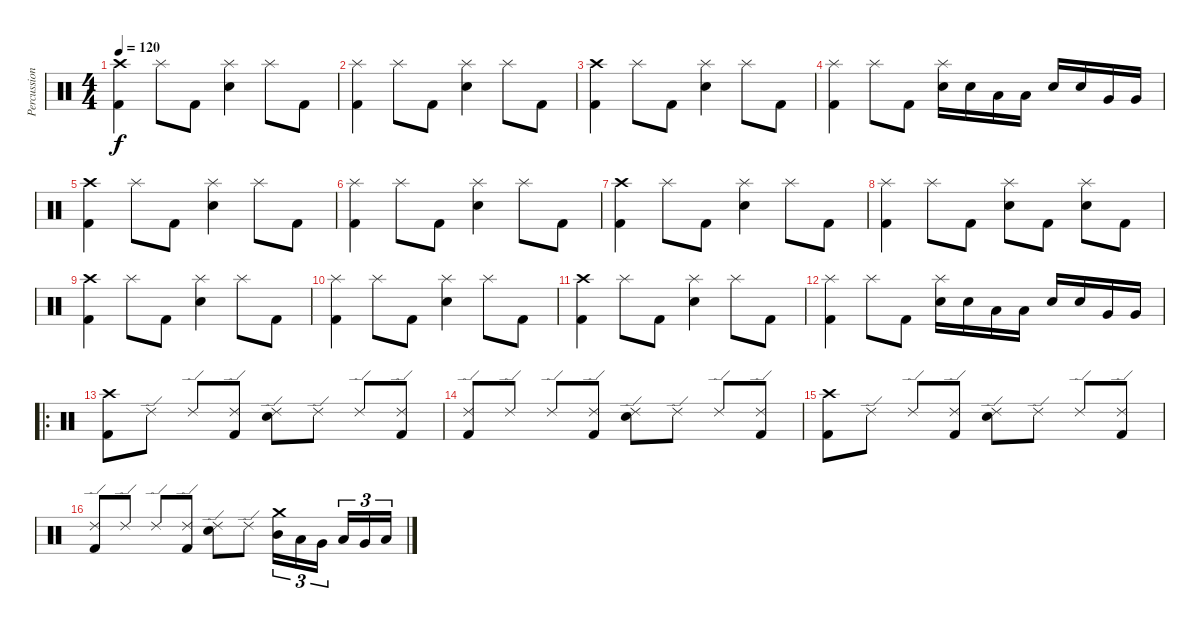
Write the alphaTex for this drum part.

\track ("Percussion" "Percussion") {instrument percussion}
\staff {score}
\articulation defaults
\ts (4 4)
\tempo 120
\clef neutral
\ks c
("Crash high (hit)" "Kick (hit) 2").4{dy f} "Splash (hit)".8 "Kick (hit) 2".8 ("Splash (hit)" "Electric Snare (hit)").4 "Splash (hit)".8 "Kick (hit) 2".8 |
("Splash (hit)" "Kick (hit) 2").4 "Splash (hit)".8 "Kick (hit) 2".8 ("Splash (hit)" "Electric Snare (hit)").4 "Splash (hit)".8 "Kick (hit) 2".8 |
("Crash high (hit)" "Kick (hit) 2").4 "Splash (hit)".8 "Kick (hit) 2".8 ("Splash (hit)" "Electric Snare (hit)").4 "Splash (hit)".8 "Kick (hit) 2".8 |
("Splash (hit)" "Kick (hit) 2").4 "Splash (hit)".8 "Kick (hit) 2".8 ("Splash (hit)" "Electric Snare (hit)").16 "Electric Snare (hit)".16 "Low Tom (hit)".16 "Low Tom (hit)".16 "Electric Snare (hit)".16 "Electric Snare (hit)".16 "Very Low Tom (hit)".16 "Very Low Tom (hit)".16 |
("Crash high (hit)" "Kick (hit) 2").4 "Splash (hit)".8 "Kick (hit) 2".8 ("Splash (hit)" "Electric Snare (hit)").4 "Splash (hit)".8 "Kick (hit) 2".8 |
("Splash (hit)" "Kick (hit) 2").4 "Splash (hit)".8 "Kick (hit) 2".8 ("Splash (hit)" "Electric Snare (hit)").4 "Splash (hit)".8 "Kick (hit) 2".8 |
("Crash high (hit)" "Kick (hit) 2").4 "Splash (hit)".8 "Kick (hit) 2".8 ("Splash (hit)" "Electric Snare (hit)").4 "Splash (hit)".8 "Kick (hit) 2".8 |
("Splash (hit)" "Kick (hit) 2").4 "Splash (hit)".8 "Kick (hit) 2".8 ("Splash (hit)" "Electric Snare (hit)").8 "Kick (hit) 2".8 ("Splash (hit)" "Electric Snare (hit)").8 "Kick (hit) 2".8 |
("Crash high (hit)" "Kick (hit) 2").4 "Splash (hit)".8 "Kick (hit) 2".8 ("Splash (hit)" "Electric Snare (hit)").4 "Splash (hit)".8 "Kick (hit) 2".8 |
("Splash (hit)" "Kick (hit) 2").4 "Splash (hit)".8 "Kick (hit) 2".8 ("Splash (hit)" "Electric Snare (hit)").4 "Splash (hit)".8 "Kick (hit) 2".8 |
("Crash high (hit)" "Kick (hit) 2").4 "Splash (hit)".8 "Kick (hit) 2".8 ("Splash (hit)" "Electric Snare (hit)").4 "Splash (hit)".8 "Kick (hit) 2".8 |
("Splash (hit)" "Kick (hit) 2").4 "Splash (hit)".8 "Kick (hit) 2".8 ("Splash (hit)" "Electric Snare (hit)").16 "Electric Snare (hit)".16 "Low Tom (hit)".16 "Low Tom (hit)".16 "Electric Snare (hit)".16 "Electric Snare (hit)".16 "Very Low Tom (hit)".16 "Very Low Tom (hit)".16 |
\ro
("Crash high (hit)" "Kick (hit) 2").8 "Ride (edge) 2".8 "Ride (edge) 2".8 ("Ride (edge) 2" "Kick (hit) 2").8 ("Ride (edge) 2" "Electric Snare (hit)").8 "Ride (edge) 2".8 "Ride (edge) 2".8 ("Ride (edge) 2" "Kick (hit) 2").8 |
("Ride (edge) 2" "Kick (hit) 2").8 "Ride (edge) 2".8 "Ride (edge) 2".8 ("Ride (edge) 2" "Kick (hit) 2").8 ("Ride (edge) 2" "Electric Snare (hit)").8 "Ride (edge) 2".8 "Ride (edge) 2".8 ("Ride (edge) 2" "Kick (hit) 2").8 |
("Crash high (hit)" "Kick (hit) 2").8 "Ride (edge) 2".8 "Ride (edge) 2".8 ("Ride (edge) 2" "Kick (hit) 2").8 ("Ride (edge) 2" "Electric Snare (hit)").8 "Ride (edge) 2".8 "Ride (edge) 2".8 ("Ride (edge) 2" "Kick (hit) 2").8 |
("Ride (edge) 2" "Kick (hit) 2").8 "Ride (edge) 2".8 "Ride (edge) 2".8 ("Ride (edge) 2" "Kick (hit) 2").8 ("Ride (edge) 2" "Electric Snare (hit)").8 "Ride (edge) 2".8 ("Crash medium (hit)" "Mid Tom (hit)").16{tu (3 2)} "Low Tom (hit)".16{tu (3 2)} "Very Low Tom (hit)".16{tu (3 2) beam splitsecondary} "Low Tom (hit)".16{tu (3 2)} "Very Low Tom (hit)".16{tu (3 2)} "Low Floor Tom (hit)".16{tu (3 2)}
